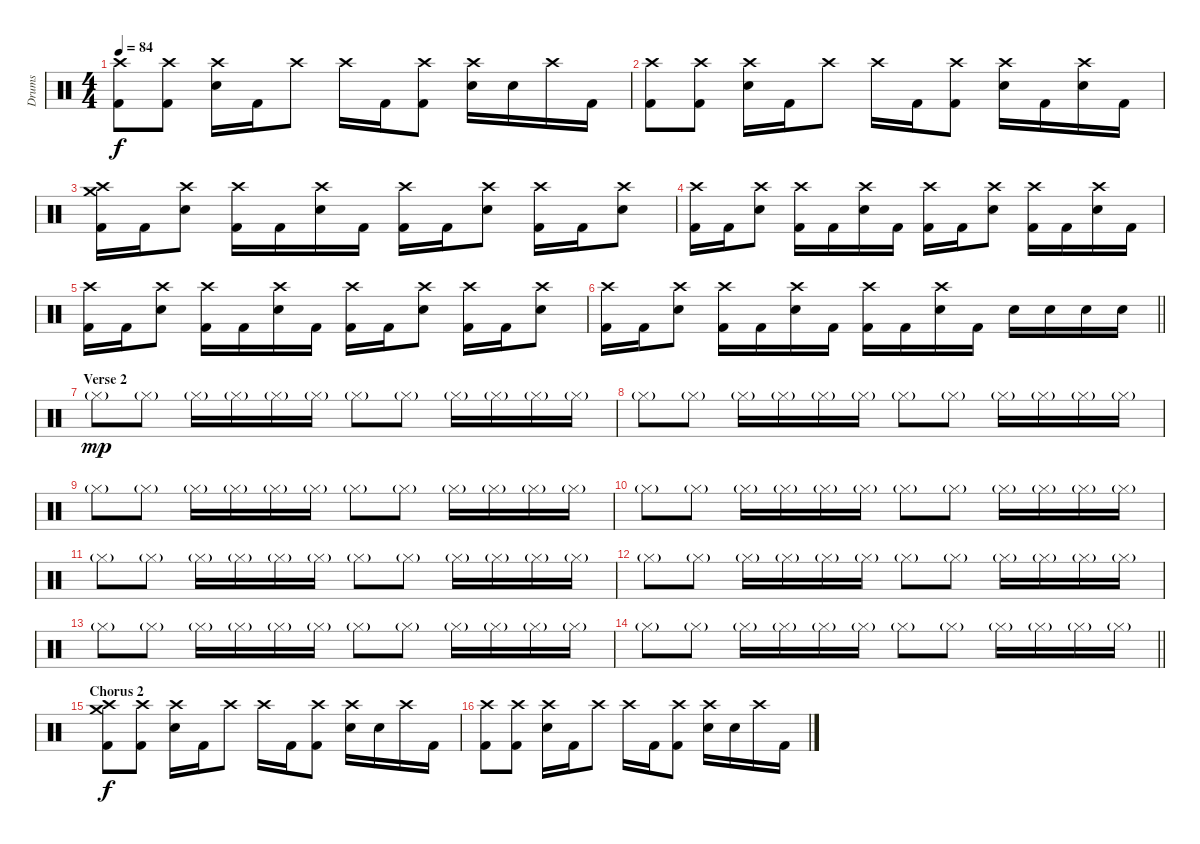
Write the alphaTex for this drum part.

\track ("Drums" "Drums") {instrument percussion}
\staff {score}
\articulation defaults
\ts (4 4)
\tempo 84
\clef neutral
\ks c
("Crash high (hit)" "Kick (hit) 2").8{dy f} ("Crash high (hit)" "Kick (hit) 2").8 ("Crash high (hit)" "Electric Snare (hit)").16 "Kick (hit) 2".16 "Crash high (hit)".8 "Crash high (hit)".16 "Kick (hit) 2".16 ("Crash high (hit)" "Kick (hit) 2").8 ("Crash high (hit)" "Electric Snare (hit)").16 "Electric Snare (hit)".16 "Crash high (hit)".16 "Kick (hit) 2".16 |
("Crash high (hit)" "Kick (hit) 2").8 ("Crash high (hit)" "Kick (hit) 2").8 ("Crash high (hit)" "Electric Snare (hit)").16 "Kick (hit) 2".16 "Crash high (hit)".8 "Crash high (hit)".16 "Kick (hit) 2".16 ("Crash high (hit)" "Kick (hit) 2").8 ("Crash high (hit)" "Electric Snare (hit)").16 "Kick (hit) 2".16 ("Crash high (hit)" "Electric Snare (hit)").16 "Kick (hit) 2".16 |
("Crash medium (hit)" "Crash high (hit)" "Kick (hit) 2").16 "Kick (hit) 2".16 ("Crash high (hit)" "Electric Snare (hit)").8 ("Crash high (hit)" "Kick (hit) 2").16 "Kick (hit) 2".16 ("Crash high (hit)" "Electric Snare (hit)").16 "Kick (hit) 2".16 ("Crash high (hit)" "Kick (hit) 2").16 "Kick (hit) 2".16 ("Crash high (hit)" "Electric Snare (hit)").8 ("Crash high (hit)" "Kick (hit) 2").16 "Kick (hit) 2".16 ("Crash high (hit)" "Electric Snare (hit)").8 |
("Crash high (hit)" "Kick (hit) 2").16 "Kick (hit) 2".16 ("Crash high (hit)" "Electric Snare (hit)").8 ("Crash high (hit)" "Kick (hit) 2").16 "Kick (hit) 2".16 ("Crash high (hit)" "Electric Snare (hit)").16 "Kick (hit) 2".16 ("Crash high (hit)" "Kick (hit) 2").16 "Kick (hit) 2".16 ("Crash high (hit)" "Electric Snare (hit)").8 ("Crash high (hit)" "Kick (hit) 2").16 "Kick (hit) 2".16 ("Crash high (hit)" "Electric Snare (hit)").16 "Kick (hit) 2".16 |
("Crash high (hit)" "Kick (hit) 2").16 "Kick (hit) 2".16 ("Crash high (hit)" "Electric Snare (hit)").8 ("Crash high (hit)" "Kick (hit) 2").16 "Kick (hit) 2".16 ("Crash high (hit)" "Electric Snare (hit)").16 "Kick (hit) 2".16 ("Crash high (hit)" "Kick (hit) 2").16 "Kick (hit) 2".16 ("Crash high (hit)" "Electric Snare (hit)").8 ("Crash high (hit)" "Kick (hit) 2").16 "Kick (hit) 2".16 ("Crash high (hit)" "Electric Snare (hit)").8 |
\barLineRight lightlight
("Crash high (hit)" "Kick (hit) 2").16 "Kick (hit) 2".16 ("Crash high (hit)" "Electric Snare (hit)").8 ("Crash high (hit)" "Kick (hit) 2").16 "Kick (hit) 2".16 ("Crash high (hit)" "Electric Snare (hit)").16 "Kick (hit) 2".16 ("Crash high (hit)" "Kick (hit) 2").16 "Kick (hit) 2".16 ("Crash high (hit)" "Electric Snare (hit)").16 "Kick (hit) 2".16 "Electric Snare (hit)".16 "Electric Snare (hit)".16 "Electric Snare (hit)".16 "Electric Snare (hit)".16 |
\section ("" "Verse 2")
"Hi-Hat (closed)"{g}.8{dy mp volume 9} "Hi-Hat (closed)"{g}.8 "Hi-Hat (closed)"{g}.16 "Hi-Hat (closed)"{g}.16 "Hi-Hat (closed)"{g}.16 "Hi-Hat (closed)"{g}.16 "Hi-Hat (closed)"{g}.8 "Hi-Hat (closed)"{g}.8 "Hi-Hat (closed)"{g}.16 "Hi-Hat (closed)"{g}.16 "Hi-Hat (closed)"{g}.16 "Hi-Hat (closed)"{g}.16 |
"Hi-Hat (closed)"{g}.8{volume 9} "Hi-Hat (closed)"{g}.8 "Hi-Hat (closed)"{g}.16 "Hi-Hat (closed)"{g}.16 "Hi-Hat (closed)"{g}.16 "Hi-Hat (closed)"{g}.16 "Hi-Hat (closed)"{g}.8 "Hi-Hat (closed)"{g}.8 "Hi-Hat (closed)"{g}.16 "Hi-Hat (closed)"{g}.16 "Hi-Hat (closed)"{g}.16 "Hi-Hat (closed)"{g}.16 |
"Hi-Hat (closed)"{g}.8{volume 9} "Hi-Hat (closed)"{g}.8 "Hi-Hat (closed)"{g}.16 "Hi-Hat (closed)"{g}.16 "Hi-Hat (closed)"{g}.16 "Hi-Hat (closed)"{g}.16 "Hi-Hat (closed)"{g}.8 "Hi-Hat (closed)"{g}.8 "Hi-Hat (closed)"{g}.16 "Hi-Hat (closed)"{g}.16 "Hi-Hat (closed)"{g}.16 "Hi-Hat (closed)"{g}.16 |
"Hi-Hat (closed)"{g}.8{volume 9} "Hi-Hat (closed)"{g}.8 "Hi-Hat (closed)"{g}.16 "Hi-Hat (closed)"{g}.16 "Hi-Hat (closed)"{g}.16 "Hi-Hat (closed)"{g}.16 "Hi-Hat (closed)"{g}.8 "Hi-Hat (closed)"{g}.8 "Hi-Hat (closed)"{g}.16 "Hi-Hat (closed)"{g}.16 "Hi-Hat (closed)"{g}.16 "Hi-Hat (closed)"{g}.16 |
"Hi-Hat (closed)"{g}.8{volume 9} "Hi-Hat (closed)"{g}.8 "Hi-Hat (closed)"{g}.16 "Hi-Hat (closed)"{g}.16 "Hi-Hat (closed)"{g}.16 "Hi-Hat (closed)"{g}.16 "Hi-Hat (closed)"{g}.8 "Hi-Hat (closed)"{g}.8 "Hi-Hat (closed)"{g}.16 "Hi-Hat (closed)"{g}.16 "Hi-Hat (closed)"{g}.16 "Hi-Hat (closed)"{g}.16 |
"Hi-Hat (closed)"{g}.8{volume 9} "Hi-Hat (closed)"{g}.8 "Hi-Hat (closed)"{g}.16 "Hi-Hat (closed)"{g}.16 "Hi-Hat (closed)"{g}.16 "Hi-Hat (closed)"{g}.16 "Hi-Hat (closed)"{g}.8 "Hi-Hat (closed)"{g}.8 "Hi-Hat (closed)"{g}.16 "Hi-Hat (closed)"{g}.16 "Hi-Hat (closed)"{g}.16 "Hi-Hat (closed)"{g}.16 |
"Hi-Hat (closed)"{g}.8{volume 9} "Hi-Hat (closed)"{g}.8 "Hi-Hat (closed)"{g}.16 "Hi-Hat (closed)"{g}.16 "Hi-Hat (closed)"{g}.16 "Hi-Hat (closed)"{g}.16 "Hi-Hat (closed)"{g}.8 "Hi-Hat (closed)"{g}.8 "Hi-Hat (closed)"{g}.16 "Hi-Hat (closed)"{g}.16 "Hi-Hat (closed)"{g}.16 "Hi-Hat (closed)"{g}.16 |
\barLineRight lightlight "Hi-Hat (closed)"{g}.8{volume 9} "Hi-Hat (closed)"{g}.8 "Hi-Hat (closed)"{g}.16 "Hi-Hat (closed)"{g}.16 "Hi-Hat (closed)"{g}.16 "Hi-Hat (closed)"{g}.16 "Hi-Hat (closed)"{g}.8 "Hi-Hat (closed)"{g}.8 "Hi-Hat (closed)"{g}.16 "Hi-Hat (closed)"{g}.16 "Hi-Hat (closed)"{g}.16 "Hi-Hat (closed)"{g}.16
|
\section ("" "Chorus 2")
("Crash medium (hit)" "Crash high (hit)" "Kick (hit) 2").8{dy f volume 13} ("Crash high (hit)" "Kick (hit) 2").8 ("Crash high (hit)" "Electric Snare (hit)").16 "Kick (hit) 2".16 "Crash high (hit)".8 "Crash high (hit)".16 "Kick (hit) 2".16 ("Crash high (hit)" "Kick (hit) 2").8 ("Crash high (hit)" "Electric Snare (hit)").16 "Electric Snare (hit)".16 "Crash high (hit)".16 "Kick (hit) 2".16 |
("Crash high (hit)" "Kick (hit) 2").8 ("Crash high (hit)" "Kick (hit) 2").8 ("Crash high (hit)" "Electric Snare (hit)").16 "Kick (hit) 2".16 "Crash high (hit)".8 "Crash high (hit)".16 "Kick (hit) 2".16 ("Crash high (hit)" "Kick (hit) 2").8 ("Crash high (hit)" "Electric Snare (hit)").16 "Electric Snare (hit)".16 "Crash high (hit)".16 "Kick (hit) 2".16
